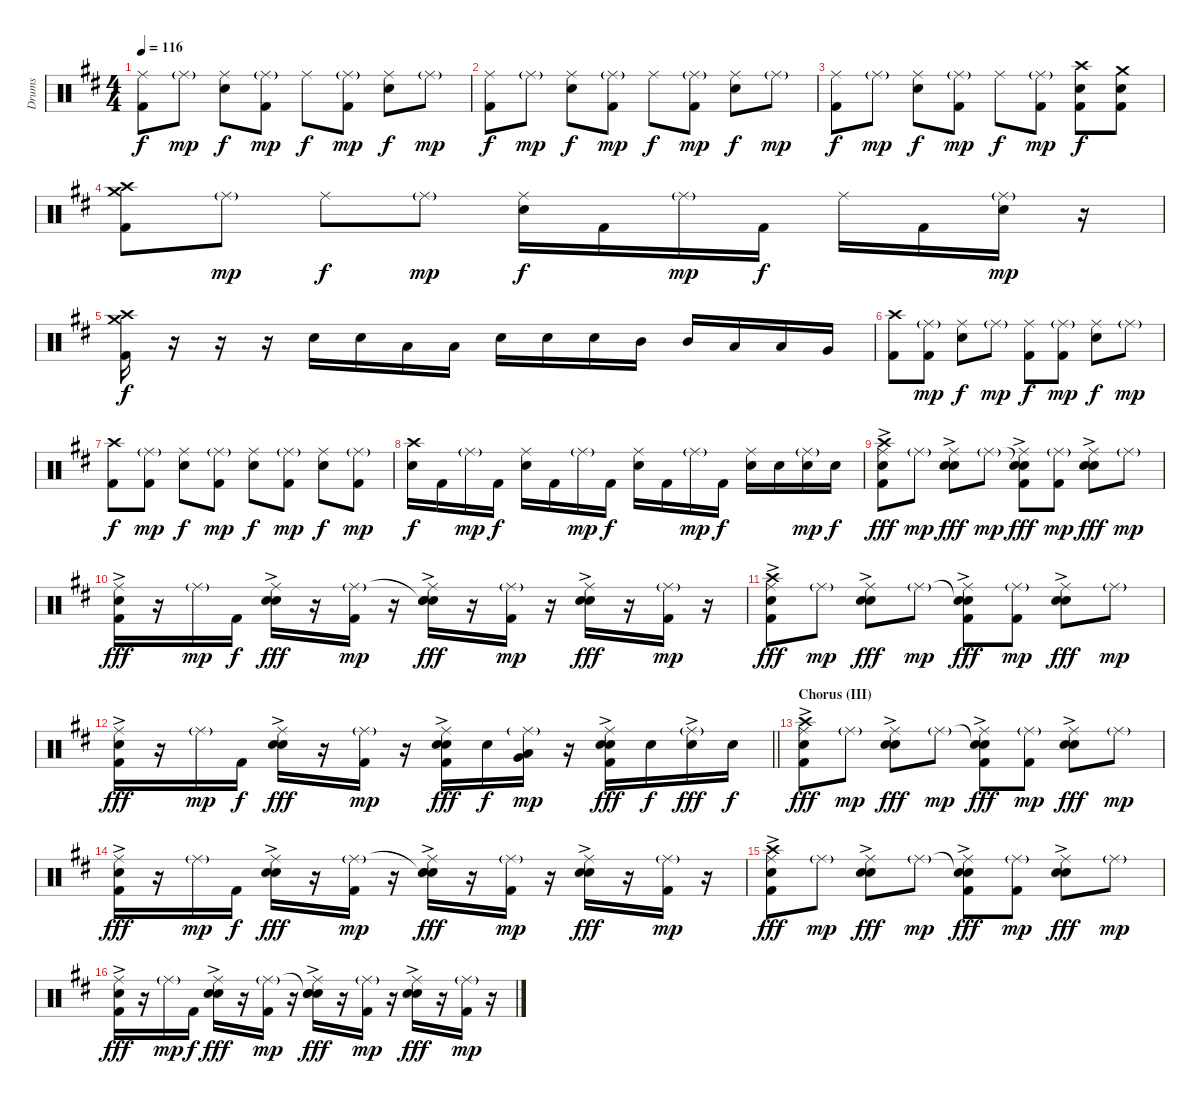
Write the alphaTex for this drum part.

\track ("Drums" "Drums") {instrument percussion}
\staff {score}
\articulation defaults
\ts (4 4)
\tempo 116
\clef neutral
\ks d
("Ride (middle)" "Kick (hit) 2").8{dy f} "Ride (middle)"{g}.8{dy mp} ("Ride (middle)" "Snare (hit) 2").8{dy f} ("Ride (middle)"{g} "Kick (hit) 2").8{dy mp} "Ride (middle)".8{dy f} ("Ride (middle)"{g} "Kick (hit) 2").8{dy mp} ("Ride (middle)" "Snare (hit) 2").8{dy f} "Ride (middle)"{g}.8{dy mp} |
("Ride (middle)" "Kick (hit) 2").8{dy f} "Ride (middle)"{g}.8{dy mp} ("Ride (middle)" "Snare (hit) 2").8{dy f} ("Ride (middle)"{g} "Kick (hit) 2").8{dy mp} "Ride (middle)".8{dy f} ("Ride (middle)"{g} "Kick (hit) 2").8{dy mp} ("Ride (middle)" "Snare (hit) 2").8{dy f} "Ride (middle)"{g}.8{dy mp} |
("Ride (middle)" "Kick (hit) 2").8{dy f} "Ride (middle)"{g}.8{dy mp} ("Ride (middle)" "Snare (hit) 2").8{dy f} ("Ride (middle)"{g} "Kick (hit) 2").8{dy mp} "Ride (middle)".8{dy f} ("Ride (middle)"{g} "Kick (hit) 2").8{dy mp} ("Crash high (hit)" "Snare (hit) 2" "Kick (hit) 2").8{dy f} ("Crash medium (hit)" "Snare (hit) 2" "Kick (hit) 2").8 |
("Crash high (hit)" "Crash medium (hit)" "Kick (hit) 2").8 "Ride (middle)"{g}.8{dy mp} "Ride (middle)".8{dy f} "Ride (middle)"{g}.8{dy mp} ("Ride (middle)" "Snare (hit) 2").16{dy f} "Kick (hit) 2".16 "Ride (middle)"{g}.16{dy mp} "Kick (hit) 2".16{dy f} "Ride (middle)".16 "Kick (hit) 2".16 ("Ride (middle)"{g} "Snare (hit) 2").16{dy mp} r.16 |
("Crash high (hit)" "Crash medium (hit)" "Kick (hit) 2").16{dy f} r.16 r.16 r.16 "Snare (hit) 2".16 "Snare (hit) 2".16 "Low Tom (hit)".16 "Low Tom (hit)".16 "Snare (hit) 2".16 "Snare (hit) 2".16 "Snare (hit) 2".16 "Mid Tom (hit)".16 "Mid Tom (hit)".16 "Low Tom (hit)".16 "Low Tom (hit)".16 "Very Low Tom (hit)".16 |
("Crash high (hit)" "Kick (hit) 2").8 ("Ride (middle)"{g} "Kick (hit) 2").8{dy mp} ("Ride (middle)" "Snare (hit) 2").8{dy f} "Ride (middle)"{g}.8{dy mp} ("Ride (middle)" "Kick (hit) 2").8{dy f} ("Ride (middle)"{g} "Kick (hit) 2").8{dy mp} ("Ride (middle)" "Snare (hit) 2").8{dy f} "Ride (middle)"{g}.8{dy mp} |
("Crash high (hit)" "Kick (hit) 2").8{dy f} ("Ride (middle)"{g} "Kick (hit) 2").8{dy mp} ("Ride (middle)" "Snare (hit) 2").8{dy f} ("Ride (middle)"{g} "Kick (hit) 2").8{dy mp} ("Ride (middle)" "Snare (hit) 2").8{dy f} ("Ride (middle)"{g} "Kick (hit) 2").8{dy mp} ("Ride (middle)" "Snare (hit) 2").8{dy f} ("Ride (middle)"{g} "Kick (hit) 2").8{dy mp} |
("Crash high (hit)" "Snare (hit) 2").16{dy f} "Kick (hit) 2".16 "Ride (middle)"{g}.16{dy mp} "Kick (hit) 2".16{dy f} ("Ride (middle)" "Snare (hit) 2").16 "Kick (hit) 2".16 "Ride (middle)"{g}.16{dy mp} "Kick (hit) 2".16{dy f} ("Ride (middle)" "Snare (hit) 2").16 "Kick (hit) 2".16 "Ride (middle)"{g}.16{dy mp} "Kick (hit) 2".16{dy f} ("Ride (middle)" "Snare (hit) 2").16 "Snare (hit) 2".16 ("Ride (middle)"{g} "Snare (hit) 2").16{dy mp} "Snare (hit) 2".16{dy f} |
("Crash high (hit)" "Ride (middle)" "Hand Clap (hit)"{ac} "Kick (hit) 2").8{dy fff} "Ride (middle)"{g}.8{dy mp} ("Ride (middle)" "Hand Clap (hit)"{ac} "Snare (hit) 2").8{dy fff} "Ride (middle)"{g}.8{dy mp} ("Snare (hit)"{t} "Ride (middle)" "Hand Clap (hit)"{ac} "Kick (hit) 2").8{dy fff} ("Ride (middle)"{g} "Kick (hit) 2").8{dy mp} ("Ride (middle)" "Hand Clap (hit)"{ac} "Snare (hit) 2").8{dy fff} "Ride (middle)"{g}.8{dy mp} |
("Ride (middle)" "Hand Clap (hit)"{ac} "Kick (hit) 2").16{dy fff} r.16 "Ride (middle)"{g}.16{dy mp} "Kick (hit) 2".16{dy f} ("Ride (middle)" "Hand Clap (hit)"{ac} "Snare (hit) 2").16{dy fff} r.16 ("Ride (middle)"{g} "Kick (hit) 2").16{dy mp} r.16 ("Snare (hit)"{t} "Ride (middle)" "Hand Clap (hit)"{ac} "Snare (hit) 2").16{dy fff} r.16 ("Ride (middle)"{g} "Kick (hit) 2").16{dy mp} r.16 ("Ride (middle)" "Hand Clap (hit)"{ac} "Snare (hit) 2").16{dy fff} r.16 ("Ride (middle)"{g} "Kick (hit) 2").16{dy mp} r.16 |
("Crash high (hit)" "Ride (middle)" "Hand Clap (hit)"{ac} "Kick (hit) 2").8{dy fff} "Ride (middle)"{g}.8{dy mp} ("Ride (middle)" "Hand Clap (hit)"{ac} "Snare (hit) 2").8{dy fff} "Ride (middle)"{g}.8{dy mp} ("Snare (hit)"{t} "Ride (middle)" "Hand Clap (hit)"{ac} "Kick (hit) 2").8{dy fff} ("Ride (middle)"{g} "Kick (hit) 2").8{dy mp} ("Ride (middle)" "Hand Clap (hit)"{ac} "Snare (hit) 2").8{dy fff} "Ride (middle)"{g}.8{dy mp} |
\barLineRight lightlight
("Ride (middle)" "Hand Clap (hit)"{ac} "Kick (hit) 2").16{dy fff} r.16 "Ride (middle)"{g}.16{dy mp} "Kick (hit) 2".16{dy f} ("Ride (middle)" "Hand Clap (hit)"{ac} "Snare (hit) 2").16{dy fff} r.16 ("Ride (middle)"{g} "Kick (hit) 2").16{dy mp} r.16 ("Ride (middle)" "Hand Clap (hit)"{ac} "Snare (hit) 2" "Kick (hit) 2").16{dy fff} "Snare (hit) 2".16{dy f} ("Ride (middle)"{g} "Low Tom (hit)" "Very Low Tom (hit)").16{dy mp} r.16 ("Ride (middle)" "Hand Clap (hit)"{ac} "Snare (hit) 2"{ac} "Kick (hit) 2").16{dy fff} "Snare (hit) 2".16{dy f} ("Ride (middle)"{g} "Snare (hit) 2"{ac}).16{dy fff} "Snare (hit) 2".16{dy f} |
\section ("" "Chorus (III)")
("Crash high (hit)" "Ride (middle)" "Hand Clap (hit)"{ac} "Kick (hit) 2").8{dy fff} "Ride (middle)"{g}.8{dy mp} ("Ride (middle)" "Hand Clap (hit)"{ac} "Snare (hit) 2").8{dy fff} "Ride (middle)"{g}.8{dy mp} ("Snare (hit)"{t} "Ride (middle)" "Hand Clap (hit)"{ac} "Kick (hit) 2").8{dy fff} ("Ride (middle)"{g} "Kick (hit) 2").8{dy mp} ("Ride (middle)" "Hand Clap (hit)"{ac} "Snare (hit) 2").8{dy fff} "Ride (middle)"{g}.8{dy mp} |
("Ride (middle)" "Hand Clap (hit)"{ac} "Kick (hit) 2").16{dy fff} r.16 "Ride (middle)"{g}.16{dy mp} "Kick (hit) 2".16{dy f} ("Ride (middle)" "Hand Clap (hit)"{ac} "Snare (hit) 2").16{dy fff} r.16 ("Ride (middle)"{g} "Kick (hit) 2").16{dy mp} r.16 ("Snare (hit)"{t} "Ride (middle)" "Hand Clap (hit)"{ac} "Snare (hit) 2").16{dy fff} r.16 ("Ride (middle)"{g} "Kick (hit) 2").16{dy mp} r.16 ("Ride (middle)" "Hand Clap (hit)"{ac} "Snare (hit) 2").16{dy fff} r.16 ("Ride (middle)"{g} "Kick (hit) 2").16{dy mp} r.16 |
("Crash high (hit)" "Ride (middle)" "Hand Clap (hit)"{ac} "Kick (hit) 2").8{dy fff} "Ride (middle)"{g}.8{dy mp} ("Ride (middle)" "Hand Clap (hit)"{ac} "Snare (hit) 2").8{dy fff} "Ride (middle)"{g}.8{dy mp} ("Snare (hit)"{t} "Ride (middle)" "Hand Clap (hit)"{ac} "Kick (hit) 2").8{dy fff} ("Ride (middle)"{g} "Kick (hit) 2").8{dy mp} ("Ride (middle)" "Hand Clap (hit)"{ac} "Snare (hit) 2").8{dy fff} "Ride (middle)"{g}.8{dy mp} |
("Ride (middle)" "Hand Clap (hit)"{ac} "Kick (hit) 2").16{dy fff} r.16 "Ride (middle)"{g}.16{dy mp} "Kick (hit) 2".16{dy f} ("Ride (middle)" "Hand Clap (hit)"{ac} "Snare (hit) 2").16{dy fff} r.16 ("Ride (middle)"{g} "Kick (hit) 2").16{dy mp} r.16 ("Snare (hit)"{t} "Ride (middle)" "Hand Clap (hit)"{ac} "Snare (hit) 2").16{dy fff} r.16 ("Ride (middle)"{g} "Kick (hit) 2").16{dy mp} r.16 ("Ride (middle)" "Hand Clap (hit)"{ac} "Snare (hit) 2").16{dy fff} r.16 ("Ride (middle)"{g} "Kick (hit) 2").16{dy mp} r.16
